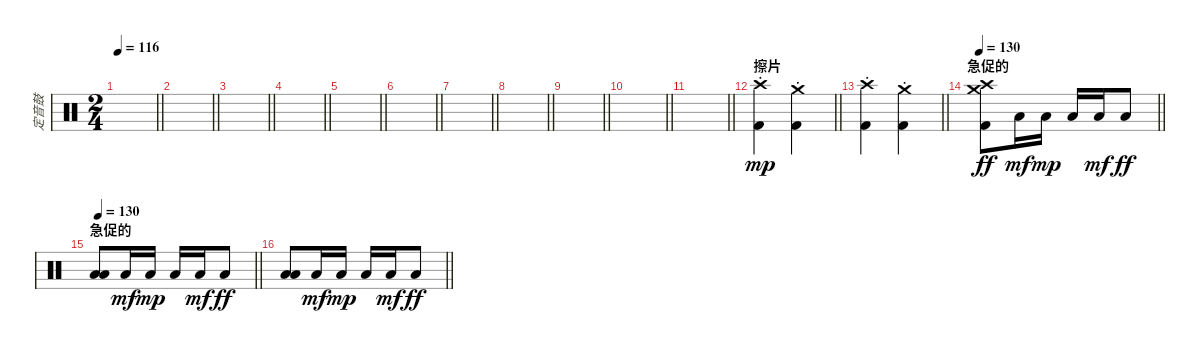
\track ("定音鼓" "定音鼓") {instrument percussion}
\staff {score}
\articulation defaults
\ts (2 4)
\tempo 116
\clef neutral
\barLineRight lightlight
\ks c
|
\barLineRight lightlight
|
\barLineRight lightlight
|
\barLineRight lightlight
|
\barLineRight lightlight
|
\barLineRight lightlight
|
\barLineRight lightlight
|
\barLineRight lightlight
|
\barLineRight lightlight
|
\barLineRight lightlight
|
\barLineRight lightlight
|
\section ("" "擦片")
\barLineRight lightlight
("Crash high (hit)"{st} "Kick (hit) 2"{st}).4{dy mp} ("Crash medium (hit)"{st} "Kick (hit) 2"{st}).4 |
\barLineRight lightlight
("Crash high (hit)"{st} "Kick (hit) 2"{st}).4 ("Crash medium (hit)"{st} "Kick (hit) 2").4 |
\section ("" "急促的")
\tempo 130
\barLineRight lightlight
("Crash medium (hit)" "Kick (hit) 2" "Crash high (hit)").8{dy ff} "Low Floor Tom (hit)".16{dy mf} "Low Floor Tom (hit)".16{dy mp} "Low Floor Tom (hit)".16 "Low Floor Tom (hit)".16{dy mf} "Low Floor Tom (hit)".8{dy ff} |
\section ("" "急促的")
\tempo 130
\barLineRight lightlight
("Low Floor Tom (hit)" "Low Floor Tom (hit)").8 "Low Floor Tom (hit)".16{dy mf} "Low Floor Tom (hit)".16{dy mp} "Low Floor Tom (hit)".16 "Low Floor Tom (hit)".16{dy mf} "Low Floor Tom (hit)".8{dy ff} |
\barLineRight lightlight
("Low Floor Tom (hit)" "Low Floor Tom (hit)").8 "Low Floor Tom (hit)".16{dy mf} "Low Floor Tom (hit)".16{dy mp} "Low Floor Tom (hit)".16 "Low Floor Tom (hit)".16{dy mf} "Low Floor Tom (hit)".8{dy ff}
